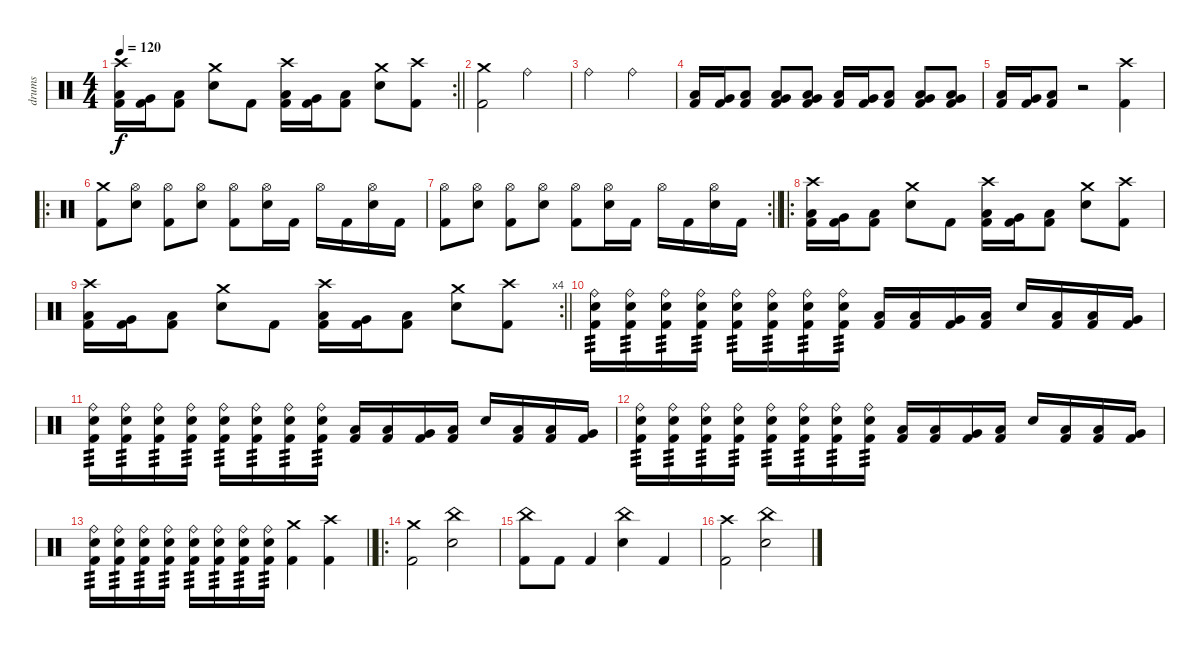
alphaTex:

\track ("drums" "drums") {instrument percussion}
\staff {score}
\articulation defaults
\rc 2
\ts (4 4)
\tempo 120
\clef neutral
\barLineRight lightlight
\ks c
("Crash high (hit)" "Low Tom (hit)" "Kick (hit) 2").16{dy f} ("Very Low Tom (hit)" "Kick (hit) 2").16 ("Low Tom (hit)" "Kick (hit) 2").8 ("Crash medium (hit)" "Electric Snare (hit)").8 "Kick (hit) 2".8 ("Crash high (hit)" "Low Tom (hit)" "Kick (hit) 2").16 ("Very Low Tom (hit)" "Kick (hit) 2").16 ("Low Tom (hit)" "Kick (hit) 2").8 ("Crash medium (hit)" "Electric Snare (hit)").8 ("Crash high (hit)" "Kick (hit) 2").8 |
("Crash medium (hit)" "Kick (hit) 2").2 "Ride (bell)".2 |
"Ride (bell)".2 "Ride (bell)".2 |
("Low Tom (hit)" "Kick (hit) 2").16 ("Very Low Tom (hit)" "Kick (hit) 2").16 ("Low Tom (hit)" "Kick (hit) 2").8 ("Very Low Tom (hit)" "Low Floor Tom (hit)" "Kick (hit) 2").8 ("Very Low Tom (hit)" "Low Floor Tom (hit)" "Kick (hit) 2").8 ("Low Tom (hit)" "Kick (hit) 2").16 ("Very Low Tom (hit)" "Kick (hit) 2").16 ("Low Tom (hit)" "Kick (hit) 2").8 ("Very Low Tom (hit)" "Low Floor Tom (hit)" "Kick (hit) 2").8 ("Very Low Tom (hit)" "Low Floor Tom (hit)" "Kick (hit) 2").8 |
("Low Tom (hit)" "Kick (hit) 2").16 ("Very Low Tom (hit)" "Kick (hit) 2").16 ("Low Tom (hit)" "Kick (hit) 2").8 r.2 ("Crash high (hit)" "Kick (hit) 2").4 |
\ro
("Crash medium (hit)" "Kick (hit) 2").8 ("Hi-Hat (open)" "Electric Snare (hit)").8 ("Hi-Hat (open)" "Kick (hit) 2").8 ("Hi-Hat (open)" "Electric Snare (hit)").8 ("Hi-Hat (open)" "Kick (hit) 2").8 ("Hi-Hat (open)" "Electric Snare (hit)").16 "Kick (hit) 2".16 "Hi-Hat (open)".16 "Kick (hit) 2".16 ("Hi-Hat (open)" "Electric Snare (hit)").16 "Kick (hit) 2".16 |
\rc 2
\barLineRight lightlight
("Hi-Hat (open)" "Kick (hit) 2").8 ("Hi-Hat (open)" "Electric Snare (hit)").8 ("Hi-Hat (open)" "Kick (hit) 2").8 ("Hi-Hat (open)" "Electric Snare (hit)").8 ("Hi-Hat (open)" "Kick (hit) 2").8 ("Hi-Hat (open)" "Electric Snare (hit)").16 "Kick (hit) 2".16 "Hi-Hat (open)".16 "Kick (hit) 2".16 ("Hi-Hat (open)" "Electric Snare (hit)").16 "Kick (hit) 2".16 |
\ro
("Crash high (hit)" "Low Tom (hit)" "Kick (hit) 2").16 ("Very Low Tom (hit)" "Kick (hit) 2").16 ("Low Tom (hit)" "Kick (hit) 2").8 ("Crash medium (hit)" "Electric Snare (hit)").8 "Kick (hit) 2".8 ("Crash high (hit)" "Low Tom (hit)" "Kick (hit) 2").16 ("Very Low Tom (hit)" "Kick (hit) 2").16 ("Low Tom (hit)" "Kick (hit) 2").8 ("Crash medium (hit)" "Electric Snare (hit)").8 ("Crash high (hit)" "Kick (hit) 2").8 |
\rc 4
\barLineRight lightlight
("Crash high (hit)" "Low Tom (hit)" "Kick (hit) 2").16 ("Very Low Tom (hit)" "Kick (hit) 2").16 ("Low Tom (hit)" "Kick (hit) 2").8 ("Crash medium (hit)" "Electric Snare (hit)").8 "Kick (hit) 2".8 ("Crash high (hit)" "Low Tom (hit)" "Kick (hit) 2").16 ("Very Low Tom (hit)" "Kick (hit) 2").16 ("Low Tom (hit)" "Kick (hit) 2").8 ("Crash medium (hit)" "Electric Snare (hit)").8 ("Crash high (hit)" "Kick (hit) 2").8 |
("Ride (bell)" "Electric Snare (hit)" "Kick (hit) 2").16{tp 3} ("Ride (bell)" "Electric Snare (hit)" "Kick (hit) 2").16{tp 3} ("Ride (bell)" "Electric Snare (hit)" "Kick (hit) 2").16{tp 3} ("Ride (bell)" "Electric Snare (hit)" "Kick (hit) 2").16{tp 3} ("Ride (bell)" "Electric Snare (hit)" "Kick (hit) 2").16{tp 3} ("Ride (bell)" "Electric Snare (hit)" "Kick (hit) 2").16{tp 3} ("Ride (bell)" "Electric Snare (hit)" "Kick (hit) 2").16{tp 3} ("Ride (bell)" "Electric Snare (hit)" "Kick (hit) 2").16{tp 3} ("Low Tom (hit)" "Kick (hit) 2").16 ("Low Tom (hit)" "Kick (hit) 2").16 ("Very Low Tom (hit)" "Kick (hit) 2").16 ("Low Tom (hit)" "Kick (hit) 2").16 "Electric Snare (hit)".16 ("Low Tom (hit)" "Kick (hit) 2").16 ("Low Tom (hit)" "Kick (hit) 2").16 ("Very Low Tom (hit)" "Kick (hit) 2").16 |
("Ride (bell)" "Electric Snare (hit)" "Kick (hit) 2").16{tp 3} ("Ride (bell)" "Electric Snare (hit)" "Kick (hit) 2").16{tp 3} ("Ride (bell)" "Electric Snare (hit)" "Kick (hit) 2").16{tp 3} ("Ride (bell)" "Electric Snare (hit)" "Kick (hit) 2").16{tp 3} ("Ride (bell)" "Electric Snare (hit)" "Kick (hit) 2").16{tp 3} ("Ride (bell)" "Electric Snare (hit)" "Kick (hit) 2").16{tp 3} ("Ride (bell)" "Electric Snare (hit)" "Kick (hit) 2").16{tp 3} ("Ride (bell)" "Electric Snare (hit)" "Kick (hit) 2").16{tp 3} ("Low Tom (hit)" "Kick (hit) 2").16 ("Low Tom (hit)" "Kick (hit) 2").16 ("Very Low Tom (hit)" "Kick (hit) 2").16 ("Low Tom (hit)" "Kick (hit) 2").16 "Electric Snare (hit)".16 ("Low Tom (hit)" "Kick (hit) 2").16 ("Low Tom (hit)" "Kick (hit) 2").16 ("Very Low Tom (hit)" "Kick (hit) 2").16 |
("Ride (bell)" "Electric Snare (hit)" "Kick (hit) 2").16{tp 3} ("Ride (bell)" "Electric Snare (hit)" "Kick (hit) 2").16{tp 3} ("Ride (bell)" "Electric Snare (hit)" "Kick (hit) 2").16{tp 3} ("Ride (bell)" "Electric Snare (hit)" "Kick (hit) 2").16{tp 3} ("Ride (bell)" "Electric Snare (hit)" "Kick (hit) 2").16{tp 3} ("Ride (bell)" "Electric Snare (hit)" "Kick (hit) 2").16{tp 3} ("Ride (bell)" "Electric Snare (hit)" "Kick (hit) 2").16{tp 3} ("Ride (bell)" "Electric Snare (hit)" "Kick (hit) 2").16{tp 3} ("Low Tom (hit)" "Kick (hit) 2").16 ("Low Tom (hit)" "Kick (hit) 2").16 ("Very Low Tom (hit)" "Kick (hit) 2").16 ("Low Tom (hit)" "Kick (hit) 2").16 "Electric Snare (hit)".16 ("Low Tom (hit)" "Kick (hit) 2").16 ("Low Tom (hit)" "Kick (hit) 2").16 ("Very Low Tom (hit)" "Kick (hit) 2").16 |
\barLineRight lightlight
("Ride (bell)" "Electric Snare (hit)" "Kick (hit) 2").16{tp 3} ("Ride (bell)" "Electric Snare (hit)" "Kick (hit) 2").16{tp 3} ("Ride (bell)" "Electric Snare (hit)" "Kick (hit) 2").16{tp 3} ("Ride (bell)" "Electric Snare (hit)" "Kick (hit) 2").16{tp 3} ("Ride (bell)" "Electric Snare (hit)" "Kick (hit) 2").16{tp 3} ("Ride (bell)" "Electric Snare (hit)" "Kick (hit) 2").16{tp 3} ("Ride (bell)" "Electric Snare (hit)" "Kick (hit) 2").16{tp 3} ("Ride (bell)" "Electric Snare (hit)" "Kick (hit) 2").16{tp 3} ("Crash medium (hit)" "Kick (hit) 2").4 ("Crash high (hit)" "Kick (hit) 2").4 |
\ro
("Crash medium (hit)" "Kick (hit) 2").2 ("China (hit)" "Electric Snare (hit)").2 |
("China (hit)" "Kick (hit) 2").8 "Kick (hit) 2".8 "Kick (hit) 2".4 ("China (hit)" "Electric Snare (hit)").4 "Kick (hit) 2".4 |
("Crash high (hit)" "Kick (hit) 2").2 ("China (hit)" "Electric Snare (hit)").2
